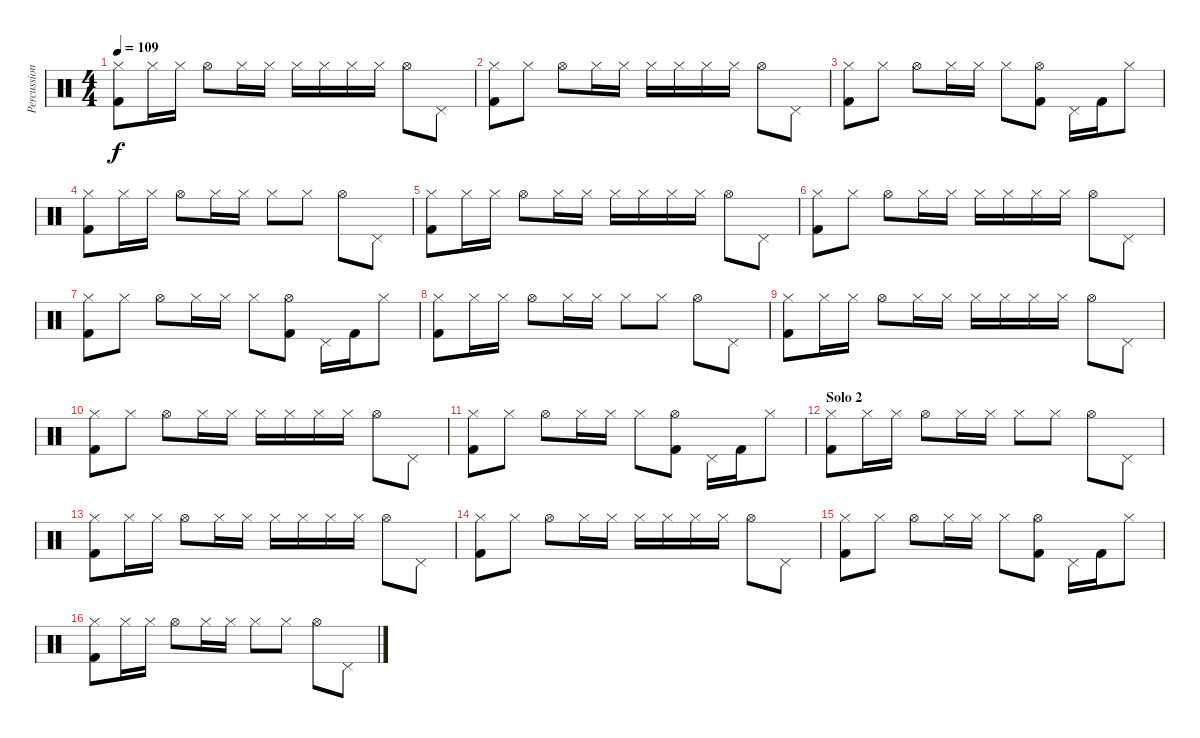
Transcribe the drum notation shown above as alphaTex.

\track ("Percussion" "Percussion") {instrument percussion}
\staff {score}
\articulation defaults
\ts (4 4)
\tempo 109
\clef neutral
\ks c
("Hi-Hat (closed)" "Kick (hit) 2").8{dy f} "Hi-Hat (closed)".16 "Hi-Hat (closed)".16 "Hi-Hat (open)".8 "Hi-Hat (closed)".16 "Hi-Hat (closed)".16 "Hi-Hat (closed)".16 "Hi-Hat (closed)".16 "Hi-Hat (closed)".16 "Hi-Hat (closed)".16 "Hi-Hat (open)".8 "Pedal Hi-Hat (hit)".8 |
("Hi-Hat (closed)" "Kick (hit) 2").8 "Hi-Hat (closed)".8 "Hi-Hat (open)".8 "Hi-Hat (closed)".16 "Hi-Hat (closed)".16 "Hi-Hat (closed)".16 "Hi-Hat (closed)".16 "Hi-Hat (closed)".16 "Hi-Hat (closed)".16 "Hi-Hat (open)".8 "Pedal Hi-Hat (hit)".8 |
("Hi-Hat (closed)" "Kick (hit) 2").8 "Hi-Hat (closed)".8 "Hi-Hat (open)".8 "Hi-Hat (closed)".16 "Hi-Hat (closed)".16 "Hi-Hat (closed)".8 ("Hi-Hat (open)" "Kick (hit) 2").8 "Pedal Hi-Hat (hit)".16 "Kick (hit) 2".16 "Hi-Hat (closed)".8 |
("Hi-Hat (closed)" "Kick (hit) 2").8{volume 7} "Hi-Hat (closed)".16 "Hi-Hat (closed)".16 "Hi-Hat (open)".8 "Hi-Hat (closed)".16 "Hi-Hat (closed)".16 "Hi-Hat (closed)".8 "Hi-Hat (closed)".8 "Hi-Hat (open)".8 "Pedal Hi-Hat (hit)".8 |
("Hi-Hat (closed)" "Kick (hit) 2").8 "Hi-Hat (closed)".16 "Hi-Hat (closed)".16 "Hi-Hat (open)".8 "Hi-Hat (closed)".16 "Hi-Hat (closed)".16 "Hi-Hat (closed)".16 "Hi-Hat (closed)".16 "Hi-Hat (closed)".16 "Hi-Hat (closed)".16 "Hi-Hat (open)".8 "Pedal Hi-Hat (hit)".8 |
("Hi-Hat (closed)" "Kick (hit) 2").8 "Hi-Hat (closed)".8 "Hi-Hat (open)".8 "Hi-Hat (closed)".16 "Hi-Hat (closed)".16 "Hi-Hat (closed)".16 "Hi-Hat (closed)".16 "Hi-Hat (closed)".16 "Hi-Hat (closed)".16 "Hi-Hat (open)".8 "Pedal Hi-Hat (hit)".8 |
("Hi-Hat (closed)" "Kick (hit) 2").8 "Hi-Hat (closed)".8 "Hi-Hat (open)".8 "Hi-Hat (closed)".16 "Hi-Hat (closed)".16 "Hi-Hat (closed)".8 ("Hi-Hat (open)" "Kick (hit) 2").8 "Pedal Hi-Hat (hit)".16 "Kick (hit) 2".16 "Hi-Hat (closed)".8 |
("Hi-Hat (closed)" "Kick (hit) 2").8{volume 7} "Hi-Hat (closed)".16 "Hi-Hat (closed)".16 "Hi-Hat (open)".8 "Hi-Hat (closed)".16 "Hi-Hat (closed)".16 "Hi-Hat (closed)".8 "Hi-Hat (closed)".8 "Hi-Hat (open)".8 "Pedal Hi-Hat (hit)".8 |
("Hi-Hat (closed)" "Kick (hit) 2").8 "Hi-Hat (closed)".16 "Hi-Hat (closed)".16 "Hi-Hat (open)".8 "Hi-Hat (closed)".16 "Hi-Hat (closed)".16 "Hi-Hat (closed)".16 "Hi-Hat (closed)".16 "Hi-Hat (closed)".16 "Hi-Hat (closed)".16 "Hi-Hat (open)".8 "Pedal Hi-Hat (hit)".8 |
("Hi-Hat (closed)" "Kick (hit) 2").8 "Hi-Hat (closed)".8 "Hi-Hat (open)".8 "Hi-Hat (closed)".16 "Hi-Hat (closed)".16 "Hi-Hat (closed)".16 "Hi-Hat (closed)".16 "Hi-Hat (closed)".16 "Hi-Hat (closed)".16 "Hi-Hat (open)".8 "Pedal Hi-Hat (hit)".8 |
("Hi-Hat (closed)" "Kick (hit) 2").8 "Hi-Hat (closed)".8 "Hi-Hat (open)".8 "Hi-Hat (closed)".16 "Hi-Hat (closed)".16 "Hi-Hat (closed)".8 ("Hi-Hat (open)" "Kick (hit) 2").8 "Pedal Hi-Hat (hit)".16 "Kick (hit) 2".16 "Hi-Hat (closed)".8 |
\section ("" "Solo 2")
("Hi-Hat (closed)" "Kick (hit) 2").8{volume 7} "Hi-Hat (closed)".16 "Hi-Hat (closed)".16 "Hi-Hat (open)".8 "Hi-Hat (closed)".16 "Hi-Hat (closed)".16 "Hi-Hat (closed)".8 "Hi-Hat (closed)".8 "Hi-Hat (open)".8 "Pedal Hi-Hat (hit)".8 |
("Hi-Hat (closed)" "Kick (hit) 2").8 "Hi-Hat (closed)".16 "Hi-Hat (closed)".16 "Hi-Hat (open)".8 "Hi-Hat (closed)".16 "Hi-Hat (closed)".16 "Hi-Hat (closed)".16 "Hi-Hat (closed)".16 "Hi-Hat (closed)".16 "Hi-Hat (closed)".16 "Hi-Hat (open)".8 "Pedal Hi-Hat (hit)".8 |
("Hi-Hat (closed)" "Kick (hit) 2").8 "Hi-Hat (closed)".8 "Hi-Hat (open)".8 "Hi-Hat (closed)".16 "Hi-Hat (closed)".16 "Hi-Hat (closed)".16 "Hi-Hat (closed)".16 "Hi-Hat (closed)".16 "Hi-Hat (closed)".16 "Hi-Hat (open)".8 "Pedal Hi-Hat (hit)".8 |
("Hi-Hat (closed)" "Kick (hit) 2").8 "Hi-Hat (closed)".8 "Hi-Hat (open)".8 "Hi-Hat (closed)".16 "Hi-Hat (closed)".16 "Hi-Hat (closed)".8 ("Hi-Hat (open)" "Kick (hit) 2").8 "Pedal Hi-Hat (hit)".16 "Kick (hit) 2".16 "Hi-Hat (closed)".8 |
("Hi-Hat (closed)" "Kick (hit) 2").8{volume 7} "Hi-Hat (closed)".16 "Hi-Hat (closed)".16 "Hi-Hat (open)".8 "Hi-Hat (closed)".16 "Hi-Hat (closed)".16 "Hi-Hat (closed)".8 "Hi-Hat (closed)".8 "Hi-Hat (open)".8 "Pedal Hi-Hat (hit)".8
